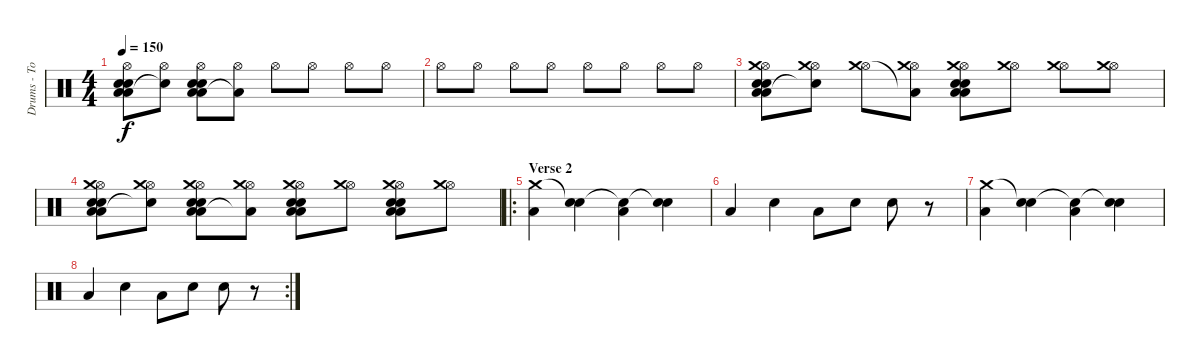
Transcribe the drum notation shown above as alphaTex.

\track ("Drums - Tom" "Drums - To") {instrument percussion}
\staff {score}
\articulation defaults
\ts (4 4)
\tempo 150
\clef neutral
\ks c
("Hi-Hat (open)" "Low Floor Tom (hit)" "Low Floor Tom (hit)" "Snare (hit) 2" "Snare (hit) 2").8{dy f} ("Hi-Hat (open)" "Snare (hit)"{t}).8 ("Hi-Hat (open)" "Low Floor Tom (hit)" "Low Floor Tom (hit)" "Snare (hit) 2" "Snare (hit) 2").8 ("Hi-Hat (open)" "Low Floor Tom (hit)"{t}).8 "Hi-Hat (open)".8 "Hi-Hat (open)".8 "Hi-Hat (open)".8 "Hi-Hat (open)".8 |
"Hi-Hat (open)".8 "Hi-Hat (open)".8 "Hi-Hat (open)".8 "Hi-Hat (open)".8 "Hi-Hat (open)".8 "Hi-Hat (open)".8 "Hi-Hat (open)".8 "Hi-Hat (open)".8 |
("Hi-Hat (open)" "Low Floor Tom (hit)" "Low Floor Tom (hit)" "Snare (hit) 2" "Snare (hit) 2" "Crash medium (hit)").8 ("Hi-Hat (open)" "Snare (hit)"{t} "Crash medium (hit)").8 ("Hi-Hat (open)" "Crash medium (hit)").8 ("Hi-Hat (open)" "Low Floor Tom (hit)"{t} "Crash medium (hit)").8 ("Hi-Hat (open)" "Low Floor Tom (hit)" "Low Floor Tom (hit)" "Snare (hit) 2" "Snare (hit) 2" "Crash medium (hit)").8 ("Hi-Hat (open)" "Crash medium (hit)").8 ("Hi-Hat (open)" "Crash medium (hit)").8 ("Hi-Hat (open)" "Crash medium (hit)").8 |
("Hi-Hat (open)" "Low Floor Tom (hit)" "Low Floor Tom (hit)" "Snare (hit) 2" "Snare (hit) 2" "Crash medium (hit)").8 ("Hi-Hat (open)" "Snare (hit)"{t} "Crash medium (hit)").8 ("Hi-Hat (open)" "Low Floor Tom (hit)" "Low Floor Tom (hit)" "Snare (hit) 2" "Snare (hit) 2" "Crash medium (hit)").8 ("Hi-Hat (open)" "Low Floor Tom (hit)"{t} "Crash medium (hit)").8 ("Hi-Hat (open)" "Low Floor Tom (hit)" "Low Floor Tom (hit)" "Snare (hit) 2" "Snare (hit) 2" "Crash medium (hit)").8 ("Hi-Hat (open)" "Crash medium (hit)").8 ("Hi-Hat (open)" "Low Floor Tom (hit)" "Low Floor Tom (hit)" "Snare (hit) 2" "Snare (hit) 2" "Crash medium (hit)").8 ("Hi-Hat (open)" "Crash medium (hit)").8 |
\ro
\section ("" "Verse 2")
("Low Floor Tom (hit)" "Crash medium (hit)").4 ("Snare (hit) 2" "Snare (hit)"{t}).4 ("Low Floor Tom (hit)" "Snare (hit)"{t}).4 ("Snare (hit) 2" "Snare (hit)"{t}).4 |
"Low Floor Tom (hit)".4 "Snare (hit) 2".4 "Low Floor Tom (hit)".8 "Snare (hit) 2".8 "Snare (hit) 2".8 r.8 |
("Low Floor Tom (hit)" "Crash medium (hit)").4 ("Snare (hit) 2" "Snare (hit)"{t}).4 ("Low Floor Tom (hit)" "Snare (hit)"{t}).4 ("Snare (hit) 2" "Snare (hit)"{t}).4 |
\rc 2 "Low Floor Tom (hit)".4 "Snare (hit) 2".4 "Low Floor Tom (hit)".8 "Snare (hit) 2".8 "Snare (hit) 2".8
r.8
